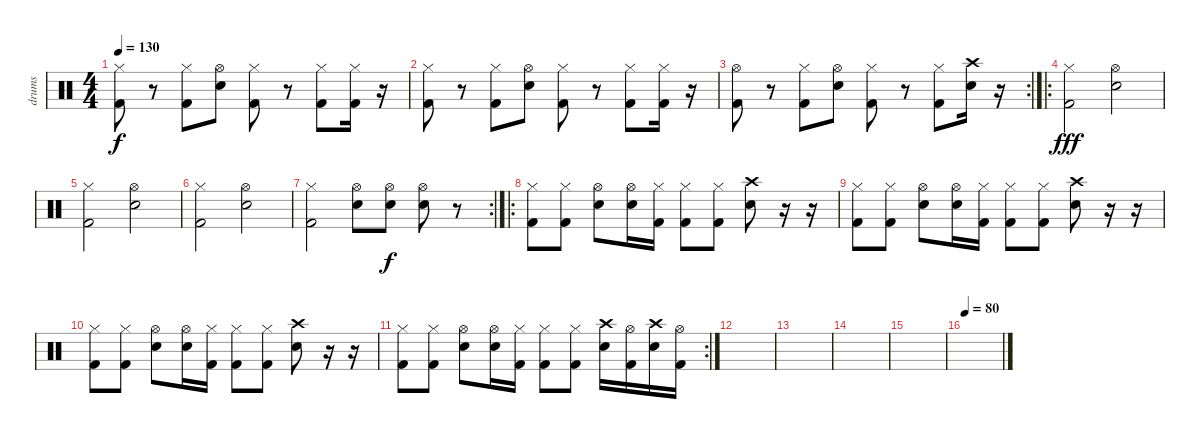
\track ("drums" "drums") {instrument percussion}
\staff {score}
\articulation defaults
\ts (4 4)
\tempo 130
\clef neutral
\ks c
("Hi-Hat (closed)" "Kick (hit) 2").8{dy f} r.8 ("Hi-Hat (closed)" "Kick (hit) 2").8 ("Hi-Hat (open)" "Snare (hit) 2").8 ("Hi-Hat (closed)" "Kick (hit) 2").8 r.8 ("Hi-Hat (closed)" "Kick (hit) 2").8 ("Hi-Hat (closed)" "Kick (hit) 2").16 r.16 |
("Hi-Hat (closed)" "Kick (hit) 2").8 r.8 ("Hi-Hat (closed)" "Kick (hit) 2").8 ("Hi-Hat (open)" "Snare (hit) 2").8 ("Hi-Hat (closed)" "Kick (hit) 2").8 r.8 ("Hi-Hat (closed)" "Kick (hit) 2").8 ("Hi-Hat (closed)" "Kick (hit) 2").16 r.16 |
\rc 2
("Hi-Hat (open)" "Kick (hit) 2").8 r.8 ("Hi-Hat (closed)" "Kick (hit) 2").8 ("Hi-Hat (open)" "Snare (hit) 2").8 ("Hi-Hat (closed)" "Kick (hit) 2").8 r.8 ("Hi-Hat (closed)" "Kick (hit) 2").8 ("Crash high (hit)" "Electric Snare (hit)").16 r.16 |
\ro
("Hi-Hat (closed)" "Kick (hit) 2").2{dy fff} ("Hi-Hat (open)" "Electric Snare (hit)").2 |
("Hi-Hat (closed)" "Kick (hit) 2").2 ("Hi-Hat (open)" "Electric Snare (hit)").2 |
("Hi-Hat (closed)" "Kick (hit) 2").2 ("Hi-Hat (open)" "Electric Snare (hit)").2 |
\rc 2
("Hi-Hat (closed)" "Kick (hit) 2").2 ("Hi-Hat (open)" "Electric Snare (hit)").8 ("Hi-Hat (open)" "Electric Snare (hit)").8{dy f} ("Hi-Hat (open)" "Electric Snare (hit)").8 r.8 |
\ro
("Hi-Hat (closed)" "Kick (hit) 2").8 ("Hi-Hat (closed)" "Kick (hit) 2").8 ("Hi-Hat (open)" "Snare (hit) 2").8 ("Hi-Hat (open)" "Snare (hit) 2").16 ("Hi-Hat (closed)" "Kick (hit) 2").16 ("Hi-Hat (closed)" "Kick (hit) 2").8 ("Hi-Hat (closed)" "Kick (hit) 2").8 ("Crash high (hit)" "Snare (hit) 2").8 r.16 r.16 |
("Hi-Hat (closed)" "Kick (hit) 2").8 ("Hi-Hat (closed)" "Kick (hit) 2").8 ("Hi-Hat (open)" "Snare (hit) 2").8 ("Hi-Hat (open)" "Snare (hit) 2").16 ("Hi-Hat (closed)" "Kick (hit) 2").16 ("Hi-Hat (closed)" "Kick (hit) 2").8 ("Hi-Hat (closed)" "Kick (hit) 2").8 ("Crash high (hit)" "Snare (hit) 2").8 r.16 r.16 |
("Hi-Hat (closed)" "Kick (hit) 2").8 ("Hi-Hat (closed)" "Kick (hit) 2").8 ("Hi-Hat (open)" "Snare (hit) 2").8 ("Hi-Hat (open)" "Snare (hit) 2").16 ("Hi-Hat (closed)" "Kick (hit) 2").16 ("Hi-Hat (closed)" "Kick (hit) 2").8 ("Hi-Hat (closed)" "Kick (hit) 2").8 ("Crash high (hit)" "Snare (hit) 2").8 r.16 r.16 |
\rc 2
("Hi-Hat (closed)" "Kick (hit) 2").8 ("Hi-Hat (closed)" "Kick (hit) 2").8 ("Hi-Hat (open)" "Snare (hit) 2").8 ("Hi-Hat (open)" "Snare (hit) 2").16 ("Hi-Hat (closed)" "Kick (hit) 2").16 ("Hi-Hat (closed)" "Kick (hit) 2").8 ("Hi-Hat (closed)" "Kick (hit) 2").8 ("Crash high (hit)" "Snare (hit) 2").16 ("Hi-Hat (open)" "Kick (hit) 2").16 ("Crash high (hit)" "Snare (hit) 2").16 ("Hi-Hat (open)" "Kick (hit) 2").16 |
|
|
|
|
\tempo 80
